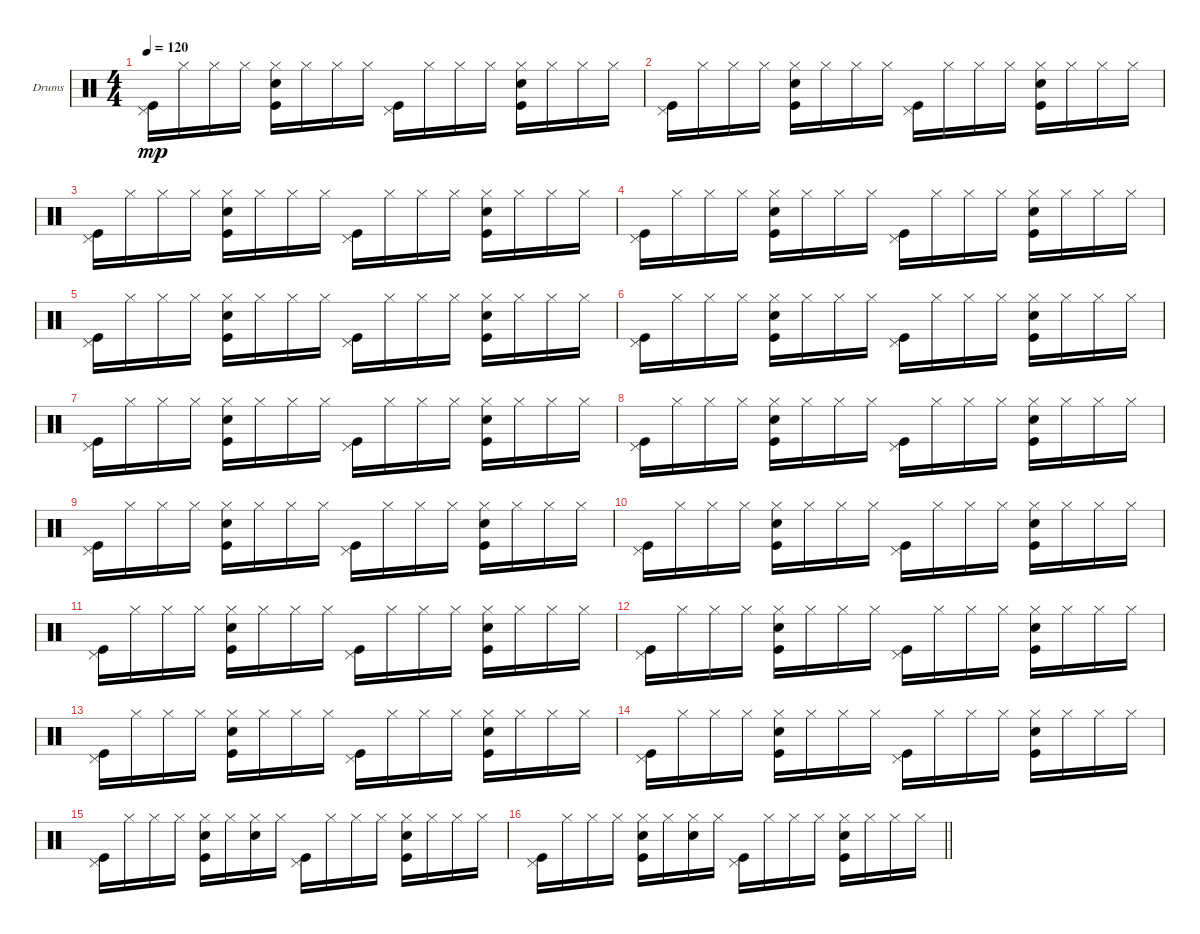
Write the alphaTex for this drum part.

\bracketExtendMode groupsimilarinstruments
\firstSystemTrackNameOrientation horizontal
\otherSystemsTrackNameOrientation horizontal
\track ("Ударные" "Drums") {instrument percussion}
\staff {score}
\articulation defaults
\ts (4 4)
\tempo 120
\clef neutral
\ks c
("Pedal Hi-Hat (hit)" "Kick (hit)").16{dy mp} "Hi-Hat (closed)".16 "Hi-Hat (closed)".16 "Hi-Hat (closed)".16 ("Hi-Hat (closed)" "Snare (hit) 2" "Kick (hit)").16 "Hi-Hat (closed)".16 "Hi-Hat (closed)".16 "Hi-Hat (closed)".16 ("Pedal Hi-Hat (hit)" "Kick (hit)").16 "Hi-Hat (closed)".16 "Hi-Hat (closed)".16 "Hi-Hat (closed)".16 ("Hi-Hat (closed)" "Snare (hit) 2" "Kick (hit)").16 "Hi-Hat (closed)".16 "Hi-Hat (closed)".16 "Hi-Hat (closed)".16 |
("Pedal Hi-Hat (hit)" "Kick (hit)").16 "Hi-Hat (closed)".16 "Hi-Hat (closed)".16 "Hi-Hat (closed)".16 ("Hi-Hat (closed)" "Snare (hit) 2" "Kick (hit)").16 "Hi-Hat (closed)".16 "Hi-Hat (closed)".16 "Hi-Hat (closed)".16 ("Pedal Hi-Hat (hit)" "Kick (hit)").16 "Hi-Hat (closed)".16 "Hi-Hat (closed)".16 "Hi-Hat (closed)".16 ("Hi-Hat (closed)" "Snare (hit) 2" "Kick (hit)").16 "Hi-Hat (closed)".16 "Hi-Hat (closed)".16 "Hi-Hat (closed)".16 |
("Pedal Hi-Hat (hit)" "Kick (hit)").16 "Hi-Hat (closed)".16 "Hi-Hat (closed)".16 "Hi-Hat (closed)".16 ("Hi-Hat (closed)" "Snare (hit) 2" "Kick (hit)").16 "Hi-Hat (closed)".16 "Hi-Hat (closed)".16 "Hi-Hat (closed)".16 ("Pedal Hi-Hat (hit)" "Kick (hit)").16 "Hi-Hat (closed)".16 "Hi-Hat (closed)".16 "Hi-Hat (closed)".16 ("Hi-Hat (closed)" "Snare (hit) 2" "Kick (hit)").16 "Hi-Hat (closed)".16 "Hi-Hat (closed)".16 "Hi-Hat (closed)".16 |
("Pedal Hi-Hat (hit)" "Kick (hit)").16 "Hi-Hat (closed)".16 "Hi-Hat (closed)".16 "Hi-Hat (closed)".16 ("Hi-Hat (closed)" "Snare (hit) 2" "Kick (hit)").16 "Hi-Hat (closed)".16 "Hi-Hat (closed)".16 "Hi-Hat (closed)".16 ("Pedal Hi-Hat (hit)" "Kick (hit)").16 "Hi-Hat (closed)".16 "Hi-Hat (closed)".16 "Hi-Hat (closed)".16 ("Hi-Hat (closed)" "Snare (hit) 2" "Kick (hit)").16 "Hi-Hat (closed)".16 "Hi-Hat (closed)".16 "Hi-Hat (closed)".16 |
("Pedal Hi-Hat (hit)" "Kick (hit)").16 "Hi-Hat (closed)".16 "Hi-Hat (closed)".16 "Hi-Hat (closed)".16 ("Hi-Hat (closed)" "Snare (hit) 2" "Kick (hit)").16 "Hi-Hat (closed)".16 "Hi-Hat (closed)".16 "Hi-Hat (closed)".16 ("Pedal Hi-Hat (hit)" "Kick (hit)").16 "Hi-Hat (closed)".16 "Hi-Hat (closed)".16 "Hi-Hat (closed)".16 ("Hi-Hat (closed)" "Snare (hit) 2" "Kick (hit)").16 "Hi-Hat (closed)".16 "Hi-Hat (closed)".16 "Hi-Hat (closed)".16 |
("Pedal Hi-Hat (hit)" "Kick (hit)").16 "Hi-Hat (closed)".16 "Hi-Hat (closed)".16 "Hi-Hat (closed)".16 ("Hi-Hat (closed)" "Snare (hit) 2" "Kick (hit)").16 "Hi-Hat (closed)".16 "Hi-Hat (closed)".16 "Hi-Hat (closed)".16 ("Pedal Hi-Hat (hit)" "Kick (hit)").16 "Hi-Hat (closed)".16 "Hi-Hat (closed)".16 "Hi-Hat (closed)".16 ("Hi-Hat (closed)" "Snare (hit) 2" "Kick (hit)").16 "Hi-Hat (closed)".16 "Hi-Hat (closed)".16 "Hi-Hat (closed)".16 |
("Pedal Hi-Hat (hit)" "Kick (hit)").16 "Hi-Hat (closed)".16 "Hi-Hat (closed)".16 "Hi-Hat (closed)".16 ("Hi-Hat (closed)" "Snare (hit) 2" "Kick (hit)").16 "Hi-Hat (closed)".16 "Hi-Hat (closed)".16 "Hi-Hat (closed)".16 ("Pedal Hi-Hat (hit)" "Kick (hit)").16 "Hi-Hat (closed)".16 "Hi-Hat (closed)".16 "Hi-Hat (closed)".16 ("Hi-Hat (closed)" "Snare (hit) 2" "Kick (hit)").16 "Hi-Hat (closed)".16 "Hi-Hat (closed)".16 "Hi-Hat (closed)".16 |
("Pedal Hi-Hat (hit)" "Kick (hit)").16 "Hi-Hat (closed)".16 "Hi-Hat (closed)".16 "Hi-Hat (closed)".16 ("Hi-Hat (closed)" "Snare (hit) 2" "Kick (hit)").16 "Hi-Hat (closed)".16 "Hi-Hat (closed)".16 "Hi-Hat (closed)".16 ("Pedal Hi-Hat (hit)" "Kick (hit)").16 "Hi-Hat (closed)".16 "Hi-Hat (closed)".16 "Hi-Hat (closed)".16 ("Hi-Hat (closed)" "Snare (hit) 2" "Kick (hit)").16 "Hi-Hat (closed)".16 "Hi-Hat (closed)".16 "Hi-Hat (closed)".16 |
("Pedal Hi-Hat (hit)" "Kick (hit)").16 "Hi-Hat (closed)".16 "Hi-Hat (closed)".16 "Hi-Hat (closed)".16 ("Hi-Hat (closed)" "Snare (hit) 2" "Kick (hit)").16 "Hi-Hat (closed)".16 "Hi-Hat (closed)".16 "Hi-Hat (closed)".16 ("Pedal Hi-Hat (hit)" "Kick (hit)").16 "Hi-Hat (closed)".16 "Hi-Hat (closed)".16 "Hi-Hat (closed)".16 ("Hi-Hat (closed)" "Snare (hit) 2" "Kick (hit)").16 "Hi-Hat (closed)".16 "Hi-Hat (closed)".16 "Hi-Hat (closed)".16 |
("Pedal Hi-Hat (hit)" "Kick (hit)").16 "Hi-Hat (closed)".16 "Hi-Hat (closed)".16 "Hi-Hat (closed)".16 ("Hi-Hat (closed)" "Snare (hit) 2" "Kick (hit)").16 "Hi-Hat (closed)".16 "Hi-Hat (closed)".16 "Hi-Hat (closed)".16 ("Pedal Hi-Hat (hit)" "Kick (hit)").16 "Hi-Hat (closed)".16 "Hi-Hat (closed)".16 "Hi-Hat (closed)".16 ("Hi-Hat (closed)" "Snare (hit) 2" "Kick (hit)").16 "Hi-Hat (closed)".16 "Hi-Hat (closed)".16 "Hi-Hat (closed)".16 |
("Pedal Hi-Hat (hit)" "Kick (hit)").16 "Hi-Hat (closed)".16 "Hi-Hat (closed)".16 "Hi-Hat (closed)".16 ("Hi-Hat (closed)" "Snare (hit) 2" "Kick (hit)").16 "Hi-Hat (closed)".16 "Hi-Hat (closed)".16 "Hi-Hat (closed)".16 ("Pedal Hi-Hat (hit)" "Kick (hit)").16 "Hi-Hat (closed)".16 "Hi-Hat (closed)".16 "Hi-Hat (closed)".16 ("Hi-Hat (closed)" "Snare (hit) 2" "Kick (hit)").16 "Hi-Hat (closed)".16 "Hi-Hat (closed)".16 "Hi-Hat (closed)".16 |
("Pedal Hi-Hat (hit)" "Kick (hit)").16 "Hi-Hat (closed)".16 "Hi-Hat (closed)".16 "Hi-Hat (closed)".16 ("Hi-Hat (closed)" "Snare (hit) 2" "Kick (hit)").16 "Hi-Hat (closed)".16 "Hi-Hat (closed)".16 "Hi-Hat (closed)".16 ("Pedal Hi-Hat (hit)" "Kick (hit)").16 "Hi-Hat (closed)".16 "Hi-Hat (closed)".16 "Hi-Hat (closed)".16 ("Hi-Hat (closed)" "Snare (hit) 2" "Kick (hit)").16 "Hi-Hat (closed)".16 "Hi-Hat (closed)".16 "Hi-Hat (closed)".16 |
("Pedal Hi-Hat (hit)" "Kick (hit)").16 "Hi-Hat (closed)".16 "Hi-Hat (closed)".16 "Hi-Hat (closed)".16 ("Hi-Hat (closed)" "Snare (hit) 2" "Kick (hit)").16 "Hi-Hat (closed)".16 "Hi-Hat (closed)".16 "Hi-Hat (closed)".16 ("Pedal Hi-Hat (hit)" "Kick (hit)").16 "Hi-Hat (closed)".16 "Hi-Hat (closed)".16 "Hi-Hat (closed)".16 ("Hi-Hat (closed)" "Snare (hit) 2" "Kick (hit)").16 "Hi-Hat (closed)".16 "Hi-Hat (closed)".16 "Hi-Hat (closed)".16 |
("Pedal Hi-Hat (hit)" "Kick (hit)").16 "Hi-Hat (closed)".16 "Hi-Hat (closed)".16 "Hi-Hat (closed)".16 ("Hi-Hat (closed)" "Snare (hit) 2" "Kick (hit)").16 "Hi-Hat (closed)".16 "Hi-Hat (closed)".16 "Hi-Hat (closed)".16 ("Pedal Hi-Hat (hit)" "Kick (hit)").16 "Hi-Hat (closed)".16 "Hi-Hat (closed)".16 "Hi-Hat (closed)".16 ("Hi-Hat (closed)" "Snare (hit) 2" "Kick (hit)").16 "Hi-Hat (closed)".16 "Hi-Hat (closed)".16 "Hi-Hat (closed)".16 |
("Pedal Hi-Hat (hit)" "Kick (hit)").16 "Hi-Hat (closed)".16 "Hi-Hat (closed)".16 "Hi-Hat (closed)".16 ("Hi-Hat (closed)" "Snare (hit) 2" "Kick (hit)").16 "Hi-Hat (closed)".16 ("Hi-Hat (closed)" "Snare (hit) 2").16 "Hi-Hat (closed)".16 ("Pedal Hi-Hat (hit)" "Kick (hit)").16 "Hi-Hat (closed)".16 "Hi-Hat (closed)".16 "Hi-Hat (closed)".16 ("Hi-Hat (closed)" "Snare (hit) 2" "Kick (hit)").16 "Hi-Hat (closed)".16 "Hi-Hat (closed)".16 "Hi-Hat (closed)".16 |
\barLineRight lightlight
("Pedal Hi-Hat (hit)" "Kick (hit)").16 "Hi-Hat (closed)".16 "Hi-Hat (closed)".16 "Hi-Hat (closed)".16 ("Hi-Hat (closed)" "Snare (hit) 2" "Kick (hit)").16 "Hi-Hat (closed)".16 ("Hi-Hat (closed)" "Snare (hit) 2").16 "Hi-Hat (closed)".16 ("Pedal Hi-Hat (hit)" "Kick (hit)").16 "Hi-Hat (closed)".16 "Hi-Hat (closed)".16 "Hi-Hat (closed)".16 ("Hi-Hat (closed)" "Snare (hit) 2" "Kick (hit)").16 "Hi-Hat (closed)".16 "Hi-Hat (closed)".16 "Hi-Hat (closed)".16
